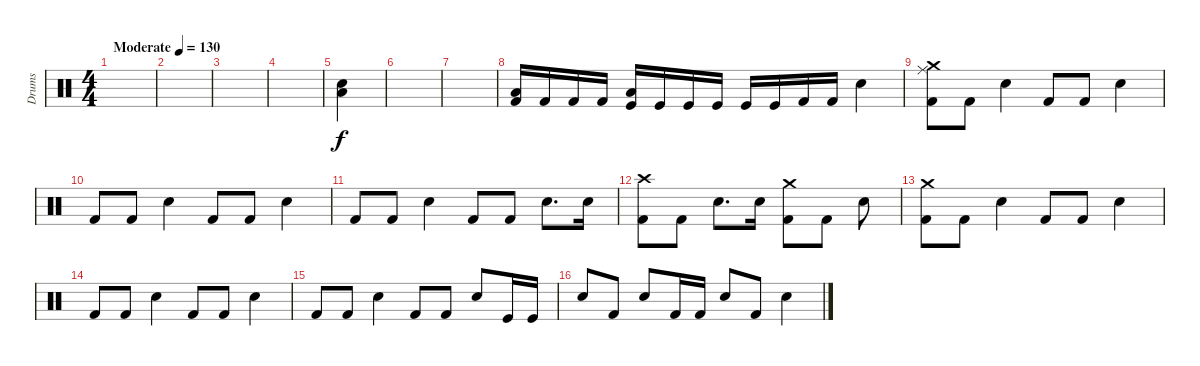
\track ("Drums" "Drums") {instrument percussion}
\staff {score}
\articulation defaults
\ts (4 4)
\tempo (130 "Moderate")
\clef neutral
\ks c
|
|
|
|
("Low Floor Tom (hit)" "Snare (hit) 2").4 |
|
|
("Kick (hit) 2" "Low Floor Tom (hit)").16 "Kick (hit) 2".16 "Kick (hit) 2".16 "Kick (hit) 2".16 ("Kick (hit)" "Low Floor Tom (hit)").16 "Kick (hit)".16 "Kick (hit)".16 "Kick (hit)".16 "Kick (hit)".16 "Kick (hit)".16 "Kick (hit) 2".16 "Kick (hit) 2".16 "Electric Snare (hit)".4 |
("Kick (hit) 2" "Crash medium (hit)" "Ride (middle)").8 "Kick (hit) 2".8 "Electric Snare (hit)".4 "Kick (hit) 2".8 "Kick (hit) 2".8 "Electric Snare (hit)".4 |
"Kick (hit) 2".8 "Kick (hit) 2".8 "Electric Snare (hit)".4 "Kick (hit) 2".8 "Kick (hit) 2".8 "Electric Snare (hit)".4 |
"Kick (hit) 2".8 "Kick (hit) 2".8 "Electric Snare (hit)".4 "Kick (hit) 2".8 "Kick (hit) 2".8 "Electric Snare (hit)".8{d} "Snare (hit) 2".16 |
("Kick (hit) 2" "Crash high (hit)").8 "Kick (hit) 2".8 "Electric Snare (hit)".8{d} "Electric Snare (hit)".16 ("Kick (hit) 2" "Crash medium (hit)").8 "Kick (hit) 2".8 "Electric Snare (hit)".8 |
("Kick (hit) 2" "Crash medium (hit)").8 "Kick (hit) 2".8 "Electric Snare (hit)".4 "Kick (hit) 2".8 "Kick (hit) 2".8 "Electric Snare (hit)".4 |
"Kick (hit) 2".8 "Kick (hit) 2".8 "Electric Snare (hit)".4 "Kick (hit) 2".8 "Kick (hit) 2".8 "Electric Snare (hit)".4 |
"Kick (hit) 2".8 "Kick (hit) 2".8 "Electric Snare (hit)".4 "Kick (hit) 2".8 "Kick (hit) 2".8 "Electric Snare (hit)".8 "Kick (hit)".16 "Kick (hit)".16 |
"Electric Snare (hit)".8 "Kick (hit) 2".8 "Electric Snare (hit)".8 "Kick (hit) 2".16 "Kick (hit) 2".16 "Electric Snare (hit)".8 "Kick (hit) 2".8 "Electric Snare (hit)".4
